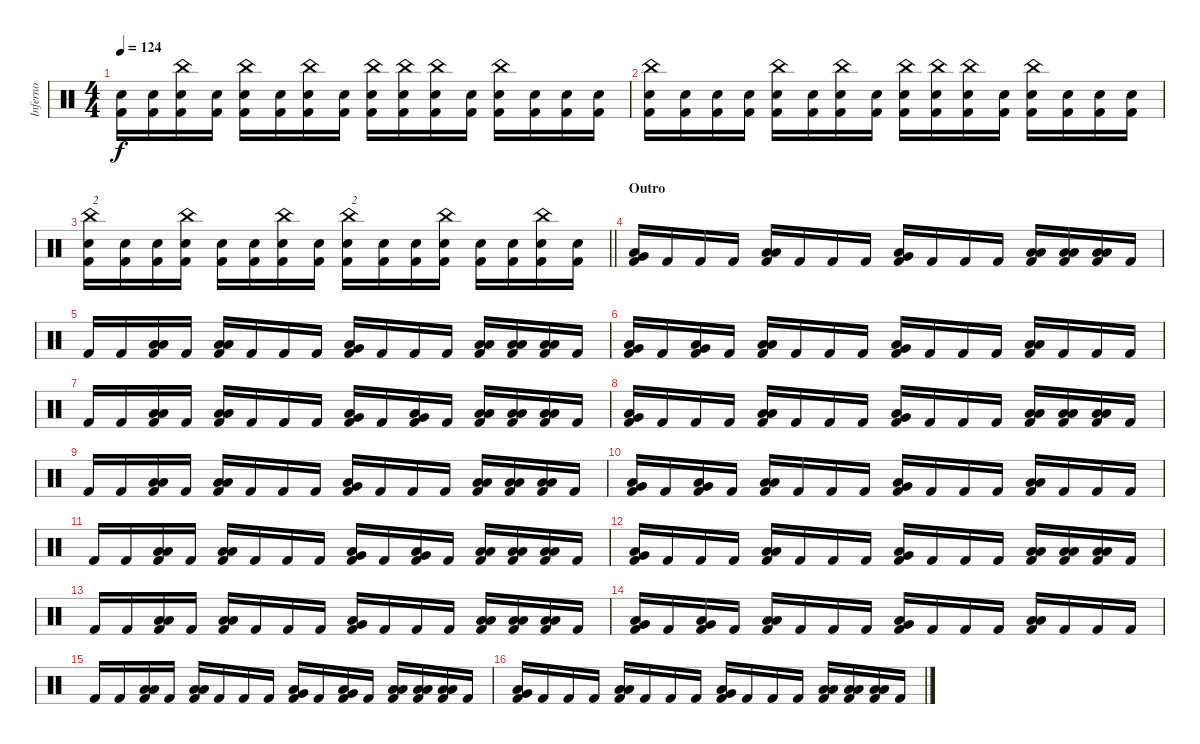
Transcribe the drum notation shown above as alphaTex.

\track ("Inferno" "Inferno") {instrument percussion}
\staff {score}
\articulation defaults
\ts (4 4)
\tempo 124
\clef neutral
\ks c
("Electric Snare (hit)" "Kick (hit) 2").16{dy f} ("Electric Snare (hit)" "Kick (hit) 2").16 ("China (hit)" "Electric Snare (hit)" "Kick (hit) 2").16 ("Electric Snare (hit)" "Kick (hit) 2").16 ("China (hit)" "Electric Snare (hit)" "Kick (hit) 2").16 ("Electric Snare (hit)" "Kick (hit) 2").16 ("China (hit)" "Electric Snare (hit)" "Kick (hit) 2").16 ("Electric Snare (hit)" "Kick (hit) 2").16 ("China (hit)" "Electric Snare (hit)" "Kick (hit) 2").16 ("China (hit)" "Electric Snare (hit)" "Kick (hit) 2").16 ("China (hit)" "Electric Snare (hit)" "Kick (hit) 2").16 ("Electric Snare (hit)" "Kick (hit) 2").16 ("China (hit)" "Electric Snare (hit)" "Kick (hit) 2").16 ("Electric Snare (hit)" "Kick (hit) 2").16 ("Electric Snare (hit)" "Kick (hit) 2").16 ("Electric Snare (hit)" "Kick (hit) 2").16 |
("China (hit)" "Electric Snare (hit)" "Kick (hit) 2").16 ("Electric Snare (hit)" "Kick (hit) 2").16 ("Electric Snare (hit)" "Kick (hit) 2").16 ("Electric Snare (hit)" "Kick (hit) 2").16 ("China (hit)" "Electric Snare (hit)" "Kick (hit) 2").16 ("Electric Snare (hit)" "Kick (hit) 2").16 ("China (hit)" "Electric Snare (hit)" "Kick (hit) 2").16 ("Electric Snare (hit)" "Kick (hit) 2").16 ("China (hit)" "Electric Snare (hit)" "Kick (hit) 2").16 ("China (hit)" "Electric Snare (hit)" "Kick (hit) 2").16 ("China (hit)" "Electric Snare (hit)" "Kick (hit) 2").16 ("Electric Snare (hit)" "Kick (hit) 2").16 ("China (hit)" "Electric Snare (hit)" "Kick (hit) 2").16 ("Electric Snare (hit)" "Kick (hit) 2").16 ("Electric Snare (hit)" "Kick (hit) 2").16 ("Electric Snare (hit)" "Kick (hit) 2").16 |
\barLineRight lightlight
("China (hit)" "Electric Snare (hit)" "Kick (hit) 2").16{txt "2"} ("Electric Snare (hit)" "Kick (hit) 2").16 ("Electric Snare (hit)" "Kick (hit) 2").16 ("China (hit)" "Electric Snare (hit)" "Kick (hit) 2").16 ("Electric Snare (hit)" "Kick (hit) 2").16 ("Electric Snare (hit)" "Kick (hit) 2").16 ("China (hit)" "Electric Snare (hit)" "Kick (hit) 2").16 ("Electric Snare (hit)" "Kick (hit) 2").16 ("China (hit)" "Electric Snare (hit)" "Kick (hit) 2").16{txt "2"} ("Electric Snare (hit)" "Kick (hit) 2").16 ("Electric Snare (hit)" "Kick (hit) 2").16 ("China (hit)" "Electric Snare (hit)" "Kick (hit) 2").16 ("Electric Snare (hit)" "Kick (hit) 2").16 ("Electric Snare (hit)" "Kick (hit) 2").16 ("China (hit)" "Electric Snare (hit)" "Kick (hit) 2").16 ("Electric Snare (hit)" "Kick (hit) 2").16 |
\section ("" "Outro")
("Very Low Tom (hit)" "Low Floor Tom (hit)" "Kick (hit) 2").16 "Kick (hit) 2".16 "Kick (hit) 2".16 "Kick (hit) 2".16 ("Low Tom (hit)" "Low Floor Tom (hit)" "Kick (hit) 2").16 "Kick (hit) 2".16 "Kick (hit) 2".16 "Kick (hit) 2".16 ("Very Low Tom (hit)" "Low Floor Tom (hit)" "Kick (hit) 2").16 "Kick (hit) 2".16 "Kick (hit) 2".16 "Kick (hit) 2".16 ("Low Tom (hit)" "Low Floor Tom (hit)" "Kick (hit) 2").16 ("Low Tom (hit)" "Low Floor Tom (hit)" "Kick (hit) 2").16 ("Low Tom (hit)" "Low Floor Tom (hit)" "Kick (hit) 2").16 "Kick (hit) 2".16 |
"Kick (hit) 2".16 "Kick (hit) 2".16 ("Low Tom (hit)" "Low Floor Tom (hit)" "Kick (hit) 2").16 "Kick (hit) 2".16 ("Low Tom (hit)" "Low Floor Tom (hit)" "Kick (hit) 2").16 "Kick (hit) 2".16 "Kick (hit) 2".16 "Kick (hit) 2".16 ("Very Low Tom (hit)" "Low Floor Tom (hit)" "Kick (hit) 2").16 "Kick (hit) 2".16 "Kick (hit) 2".16 "Kick (hit) 2".16 ("Low Tom (hit)" "Low Floor Tom (hit)" "Kick (hit) 2").16 ("Low Tom (hit)" "Low Floor Tom (hit)" "Kick (hit) 2").16 ("Low Tom (hit)" "Low Floor Tom (hit)" "Kick (hit) 2").16 "Kick (hit) 2".16 |
("Very Low Tom (hit)" "Low Floor Tom (hit)" "Kick (hit) 2").16 "Kick (hit) 2".16 ("Very Low Tom (hit)" "Low Floor Tom (hit)" "Kick (hit) 2").16 "Kick (hit) 2".16 ("Low Tom (hit)" "Low Floor Tom (hit)" "Kick (hit) 2").16 "Kick (hit) 2".16 "Kick (hit) 2".16 "Kick (hit) 2".16 ("Very Low Tom (hit)" "Low Floor Tom (hit)" "Kick (hit) 2").16 "Kick (hit) 2".16 "Kick (hit) 2".16 "Kick (hit) 2".16 ("Low Tom (hit)" "Low Floor Tom (hit)" "Kick (hit) 2").16 "Kick (hit) 2".16 "Kick (hit) 2".16 "Kick (hit) 2".16 |
"Kick (hit) 2".16 "Kick (hit) 2".16 ("Low Tom (hit)" "Low Floor Tom (hit)" "Kick (hit) 2").16 "Kick (hit) 2".16 ("Low Tom (hit)" "Low Floor Tom (hit)" "Kick (hit) 2").16 "Kick (hit) 2".16 "Kick (hit) 2".16 "Kick (hit) 2".16 ("Very Low Tom (hit)" "Low Floor Tom (hit)" "Kick (hit) 2").16 "Kick (hit) 2".16 ("Very Low Tom (hit)" "Low Floor Tom (hit)" "Kick (hit) 2").16 "Kick (hit) 2".16 ("Low Tom (hit)" "Low Floor Tom (hit)" "Kick (hit) 2").16 ("Low Tom (hit)" "Low Floor Tom (hit)" "Kick (hit) 2").16 ("Low Tom (hit)" "Low Floor Tom (hit)" "Kick (hit) 2").16 "Kick (hit) 2".16 |
("Very Low Tom (hit)" "Low Floor Tom (hit)" "Kick (hit) 2").16 "Kick (hit) 2".16 "Kick (hit) 2".16 "Kick (hit) 2".16 ("Low Tom (hit)" "Low Floor Tom (hit)" "Kick (hit) 2").16 "Kick (hit) 2".16 "Kick (hit) 2".16 "Kick (hit) 2".16 ("Very Low Tom (hit)" "Low Floor Tom (hit)" "Kick (hit) 2").16 "Kick (hit) 2".16 "Kick (hit) 2".16 "Kick (hit) 2".16 ("Low Tom (hit)" "Low Floor Tom (hit)" "Kick (hit) 2").16 ("Low Tom (hit)" "Low Floor Tom (hit)" "Kick (hit) 2").16 ("Low Tom (hit)" "Low Floor Tom (hit)" "Kick (hit) 2").16 "Kick (hit) 2".16 |
"Kick (hit) 2".16 "Kick (hit) 2".16 ("Low Tom (hit)" "Low Floor Tom (hit)" "Kick (hit) 2").16 "Kick (hit) 2".16 ("Low Tom (hit)" "Low Floor Tom (hit)" "Kick (hit) 2").16 "Kick (hit) 2".16 "Kick (hit) 2".16 "Kick (hit) 2".16 ("Very Low Tom (hit)" "Low Floor Tom (hit)" "Kick (hit) 2").16 "Kick (hit) 2".16 "Kick (hit) 2".16 "Kick (hit) 2".16 ("Low Tom (hit)" "Low Floor Tom (hit)" "Kick (hit) 2").16 ("Low Tom (hit)" "Low Floor Tom (hit)" "Kick (hit) 2").16 ("Low Tom (hit)" "Low Floor Tom (hit)" "Kick (hit) 2").16 "Kick (hit) 2".16 |
("Very Low Tom (hit)" "Low Floor Tom (hit)" "Kick (hit) 2").16 "Kick (hit) 2".16 ("Very Low Tom (hit)" "Low Floor Tom (hit)" "Kick (hit) 2").16 "Kick (hit) 2".16 ("Low Tom (hit)" "Low Floor Tom (hit)" "Kick (hit) 2").16 "Kick (hit) 2".16 "Kick (hit) 2".16 "Kick (hit) 2".16 ("Very Low Tom (hit)" "Low Floor Tom (hit)" "Kick (hit) 2").16 "Kick (hit) 2".16 "Kick (hit) 2".16 "Kick (hit) 2".16 ("Low Tom (hit)" "Low Floor Tom (hit)" "Kick (hit) 2").16 "Kick (hit) 2".16 "Kick (hit) 2".16 "Kick (hit) 2".16 |
"Kick (hit) 2".16 "Kick (hit) 2".16 ("Low Tom (hit)" "Low Floor Tom (hit)" "Kick (hit) 2").16 "Kick (hit) 2".16 ("Low Tom (hit)" "Low Floor Tom (hit)" "Kick (hit) 2").16 "Kick (hit) 2".16 "Kick (hit) 2".16 "Kick (hit) 2".16 ("Very Low Tom (hit)" "Low Floor Tom (hit)" "Kick (hit) 2").16 "Kick (hit) 2".16 ("Very Low Tom (hit)" "Low Floor Tom (hit)" "Kick (hit) 2").16 "Kick (hit) 2".16 ("Low Tom (hit)" "Low Floor Tom (hit)" "Kick (hit) 2").16 ("Low Tom (hit)" "Low Floor Tom (hit)" "Kick (hit) 2").16 ("Low Tom (hit)" "Low Floor Tom (hit)" "Kick (hit) 2").16 "Kick (hit) 2".16 |
("Very Low Tom (hit)" "Low Floor Tom (hit)" "Kick (hit) 2").16 "Kick (hit) 2".16 "Kick (hit) 2".16 "Kick (hit) 2".16 ("Low Tom (hit)" "Low Floor Tom (hit)" "Kick (hit) 2").16 "Kick (hit) 2".16 "Kick (hit) 2".16 "Kick (hit) 2".16 ("Very Low Tom (hit)" "Low Floor Tom (hit)" "Kick (hit) 2").16 "Kick (hit) 2".16 "Kick (hit) 2".16 "Kick (hit) 2".16 ("Low Tom (hit)" "Low Floor Tom (hit)" "Kick (hit) 2").16 ("Low Tom (hit)" "Low Floor Tom (hit)" "Kick (hit) 2").16 ("Low Tom (hit)" "Low Floor Tom (hit)" "Kick (hit) 2").16 "Kick (hit) 2".16 |
"Kick (hit) 2".16 "Kick (hit) 2".16 ("Low Tom (hit)" "Low Floor Tom (hit)" "Kick (hit) 2").16 "Kick (hit) 2".16 ("Low Tom (hit)" "Low Floor Tom (hit)" "Kick (hit) 2").16 "Kick (hit) 2".16 "Kick (hit) 2".16 "Kick (hit) 2".16 ("Very Low Tom (hit)" "Low Floor Tom (hit)" "Kick (hit) 2").16 "Kick (hit) 2".16 "Kick (hit) 2".16 "Kick (hit) 2".16 ("Low Tom (hit)" "Low Floor Tom (hit)" "Kick (hit) 2").16 ("Low Tom (hit)" "Low Floor Tom (hit)" "Kick (hit) 2").16 ("Low Tom (hit)" "Low Floor Tom (hit)" "Kick (hit) 2").16 "Kick (hit) 2".16 |
("Very Low Tom (hit)" "Low Floor Tom (hit)" "Kick (hit) 2").16 "Kick (hit) 2".16 ("Very Low Tom (hit)" "Low Floor Tom (hit)" "Kick (hit) 2").16 "Kick (hit) 2".16 ("Low Tom (hit)" "Low Floor Tom (hit)" "Kick (hit) 2").16 "Kick (hit) 2".16 "Kick (hit) 2".16 "Kick (hit) 2".16 ("Very Low Tom (hit)" "Low Floor Tom (hit)" "Kick (hit) 2").16 "Kick (hit) 2".16 "Kick (hit) 2".16 "Kick (hit) 2".16 ("Low Tom (hit)" "Low Floor Tom (hit)" "Kick (hit) 2").16 "Kick (hit) 2".16 "Kick (hit) 2".16 "Kick (hit) 2".16 |
"Kick (hit) 2".16 "Kick (hit) 2".16 ("Low Tom (hit)" "Low Floor Tom (hit)" "Kick (hit) 2").16 "Kick (hit) 2".16 ("Low Tom (hit)" "Low Floor Tom (hit)" "Kick (hit) 2").16 "Kick (hit) 2".16 "Kick (hit) 2".16 "Kick (hit) 2".16 ("Very Low Tom (hit)" "Low Floor Tom (hit)" "Kick (hit) 2").16 "Kick (hit) 2".16 ("Very Low Tom (hit)" "Low Floor Tom (hit)" "Kick (hit) 2").16 "Kick (hit) 2".16 ("Low Tom (hit)" "Low Floor Tom (hit)" "Kick (hit) 2").16 ("Low Tom (hit)" "Low Floor Tom (hit)" "Kick (hit) 2").16 ("Low Tom (hit)" "Low Floor Tom (hit)" "Kick (hit) 2").16 "Kick (hit) 2".16 |
("Very Low Tom (hit)" "Low Floor Tom (hit)" "Kick (hit) 2").16 "Kick (hit) 2".16 "Kick (hit) 2".16 "Kick (hit) 2".16 ("Low Tom (hit)" "Low Floor Tom (hit)" "Kick (hit) 2").16 "Kick (hit) 2".16 "Kick (hit) 2".16 "Kick (hit) 2".16 ("Very Low Tom (hit)" "Low Floor Tom (hit)" "Kick (hit) 2").16 "Kick (hit) 2".16 "Kick (hit) 2".16 "Kick (hit) 2".16 ("Low Tom (hit)" "Low Floor Tom (hit)" "Kick (hit) 2").16 ("Low Tom (hit)" "Low Floor Tom (hit)" "Kick (hit) 2").16 ("Low Tom (hit)" "Low Floor Tom (hit)" "Kick (hit) 2").16 "Kick (hit) 2".16
